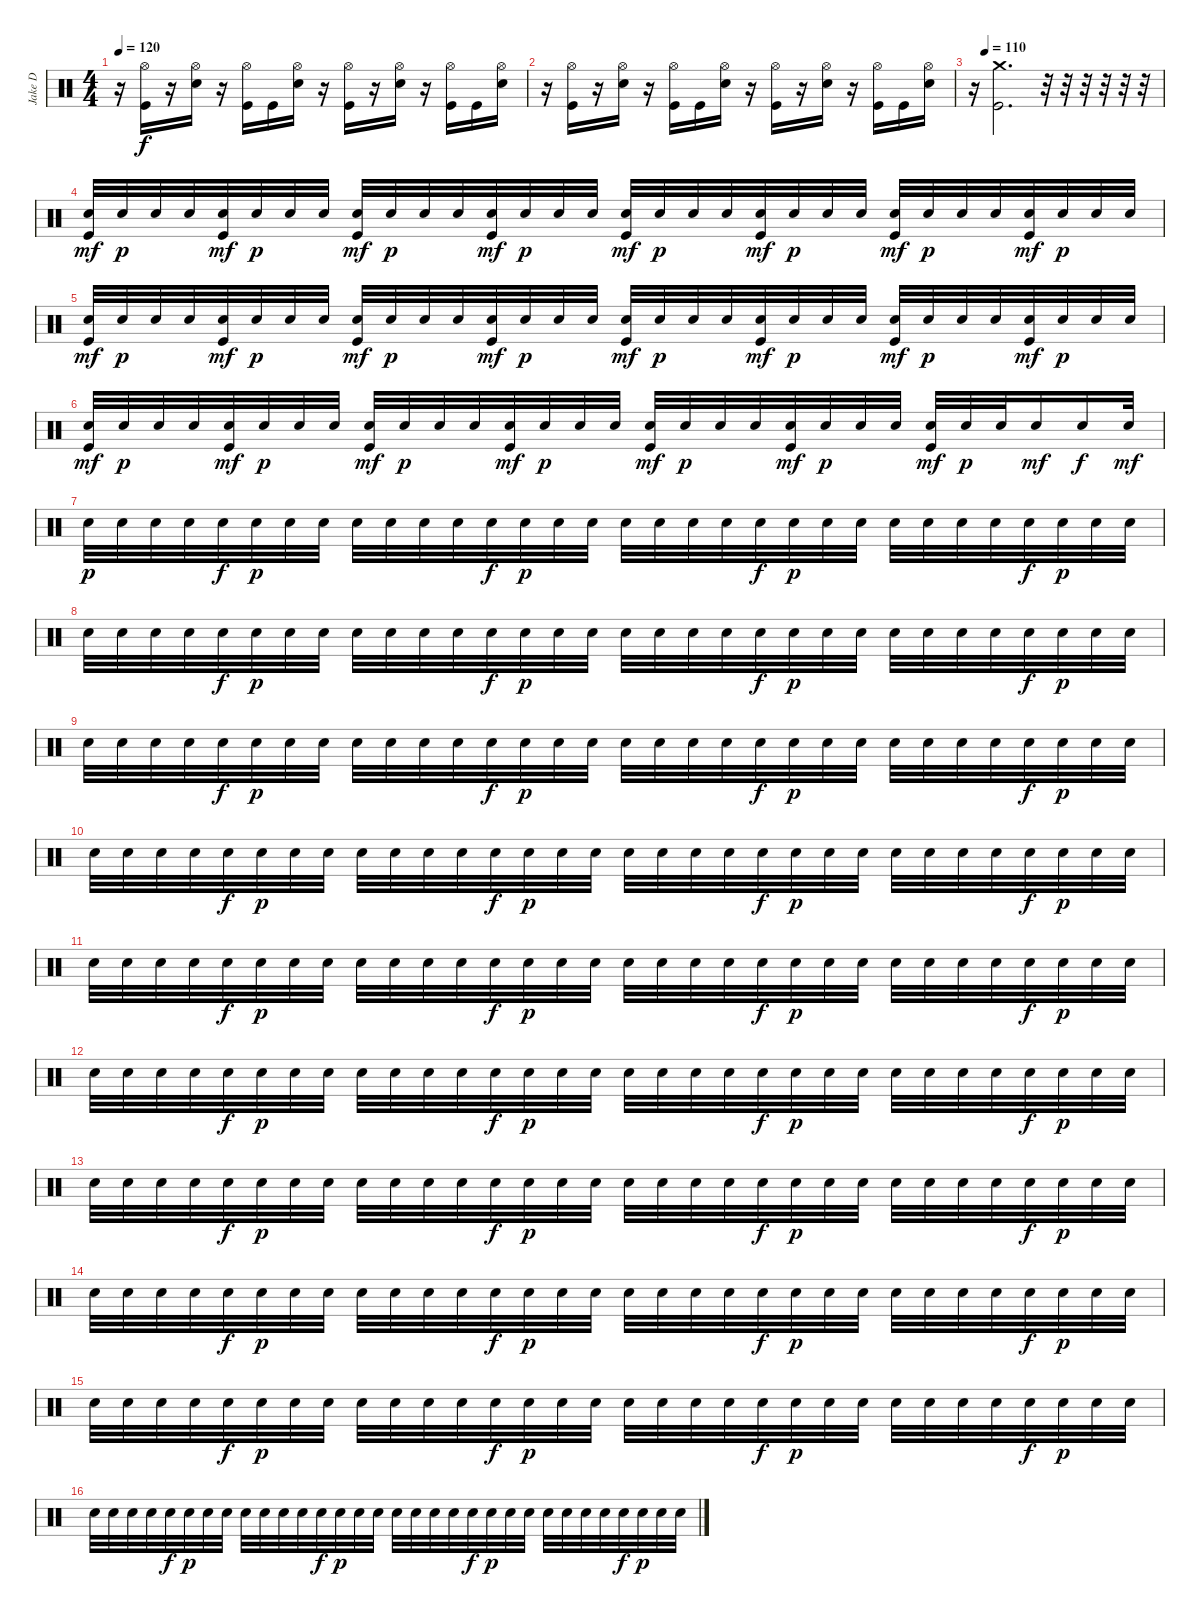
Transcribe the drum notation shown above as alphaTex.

\track ("Jake D" "Jake D") {instrument percussion}
\staff {score}
\articulation defaults
\ts (4 4)
\tempo 120
\clef neutral
\ks c
r.16{dy f} ("Hi-Hat (open)" "Kick (hit)").16 r.16 ("Hi-Hat (open)" "Electric Snare (hit)").16 r.16 ("Hi-Hat (open)" "Kick (hit)").16 "Kick (hit)".16 ("Hi-Hat (open)" "Electric Snare (hit)").16 r.16 ("Hi-Hat (open)" "Kick (hit)").16 r.16 ("Hi-Hat (open)" "Electric Snare (hit)").16 r.16 ("Hi-Hat (open)" "Kick (hit)").16 "Kick (hit)".16 ("Hi-Hat (open)" "Electric Snare (hit)").16 |
r.16 ("Hi-Hat (open)" "Kick (hit)").16 r.16 ("Hi-Hat (open)" "Electric Snare (hit)").16 r.16 ("Hi-Hat (open)" "Kick (hit)").16 "Kick (hit)".16 ("Hi-Hat (open)" "Electric Snare (hit)").16 r.16 ("Hi-Hat (open)" "Kick (hit)").16 r.16 ("Hi-Hat (open)" "Electric Snare (hit)").16 r.16 ("Hi-Hat (open)" "Kick (hit)").16 "Kick (hit)".16 ("Hi-Hat (open)" "Electric Snare (hit)").16 |
\tempo (110 0.0625)
r.16 ("Crash medium (hit)" "Kick (hit)").2{d} r.32 r.32 r.32 r.32 r.32 r.32 |
("Electric Snare (hit)" "Kick (hit)").32{dy mf} "Electric Snare (hit)".32{dy p} "Electric Snare (hit)".32 "Electric Snare (hit)".32 ("Electric Snare (hit)" "Kick (hit)").32{dy mf} "Electric Snare (hit)".32{dy p} "Electric Snare (hit)".32 "Electric Snare (hit)".32 ("Electric Snare (hit)" "Kick (hit)").32{dy mf} "Electric Snare (hit)".32{dy p} "Electric Snare (hit)".32 "Electric Snare (hit)".32 ("Electric Snare (hit)" "Kick (hit)").32{dy mf} "Electric Snare (hit)".32{dy p} "Electric Snare (hit)".32 "Electric Snare (hit)".32 ("Electric Snare (hit)" "Kick (hit)").32{dy mf} "Electric Snare (hit)".32{dy p} "Electric Snare (hit)".32 "Electric Snare (hit)".32 ("Electric Snare (hit)" "Kick (hit)").32{dy mf} "Electric Snare (hit)".32{dy p} "Electric Snare (hit)".32 "Electric Snare (hit)".32 ("Electric Snare (hit)" "Kick (hit)").32{dy mf} "Electric Snare (hit)".32{dy p} "Electric Snare (hit)".32 "Electric Snare (hit)".32 ("Electric Snare (hit)" "Kick (hit)").32{dy mf} "Electric Snare (hit)".32{dy p} "Electric Snare (hit)".32 "Electric Snare (hit)".32 |
("Electric Snare (hit)" "Kick (hit)").32{dy mf} "Electric Snare (hit)".32{dy p} "Electric Snare (hit)".32 "Electric Snare (hit)".32 ("Electric Snare (hit)" "Kick (hit)").32{dy mf} "Electric Snare (hit)".32{dy p} "Electric Snare (hit)".32 "Electric Snare (hit)".32 ("Electric Snare (hit)" "Kick (hit)").32{dy mf} "Electric Snare (hit)".32{dy p} "Electric Snare (hit)".32 "Electric Snare (hit)".32 ("Electric Snare (hit)" "Kick (hit)").32{dy mf} "Electric Snare (hit)".32{dy p} "Electric Snare (hit)".32 "Electric Snare (hit)".32 ("Electric Snare (hit)" "Kick (hit)").32{dy mf} "Electric Snare (hit)".32{dy p} "Electric Snare (hit)".32 "Electric Snare (hit)".32 ("Electric Snare (hit)" "Kick (hit)").32{dy mf} "Electric Snare (hit)".32{dy p} "Electric Snare (hit)".32 "Electric Snare (hit)".32 ("Electric Snare (hit)" "Kick (hit)").32{dy mf} "Electric Snare (hit)".32{dy p} "Electric Snare (hit)".32 "Electric Snare (hit)".32 ("Electric Snare (hit)" "Kick (hit)").32{dy mf} "Electric Snare (hit)".32{dy p} "Electric Snare (hit)".32 "Electric Snare (hit)".32 |
("Electric Snare (hit)" "Kick (hit)").32{dy mf} "Electric Snare (hit)".32{dy p} "Electric Snare (hit)".32 "Electric Snare (hit)".32 ("Electric Snare (hit)" "Kick (hit)").32{dy mf} "Electric Snare (hit)".32{dy p} "Electric Snare (hit)".32 "Electric Snare (hit)".32 ("Electric Snare (hit)" "Kick (hit)").32{dy mf} "Electric Snare (hit)".32{dy p} "Electric Snare (hit)".32 "Electric Snare (hit)".32 ("Electric Snare (hit)" "Kick (hit)").32{dy mf} "Electric Snare (hit)".32{dy p} "Electric Snare (hit)".32 "Electric Snare (hit)".32 ("Electric Snare (hit)" "Kick (hit)").32{dy mf} "Electric Snare (hit)".32{dy p} "Electric Snare (hit)".32 "Electric Snare (hit)".32 ("Electric Snare (hit)" "Kick (hit)").32{dy mf} "Electric Snare (hit)".32{dy p} "Electric Snare (hit)".32 "Electric Snare (hit)".32 ("Electric Snare (hit)" "Kick (hit)").32{dy mf} "Electric Snare (hit)".32{dy p} "Electric Snare (hit)".32 "Electric Snare (hit)".16{dy mf} "Electric Snare (hit)".16{dy f} "Electric Snare (hit)".32{dy mf} |
"Electric Snare (hit)".32{dy p} "Electric Snare (hit)".32 "Electric Snare (hit)".32 "Electric Snare (hit)".32 "Electric Snare (hit)".32{dy f} "Electric Snare (hit)".32{dy p} "Electric Snare (hit)".32 "Electric Snare (hit)".32 "Electric Snare (hit)".32 "Electric Snare (hit)".32 "Electric Snare (hit)".32 "Electric Snare (hit)".32 "Electric Snare (hit)".32{dy f} "Electric Snare (hit)".32{dy p} "Electric Snare (hit)".32 "Electric Snare (hit)".32 "Electric Snare (hit)".32 "Electric Snare (hit)".32 "Electric Snare (hit)".32 "Electric Snare (hit)".32 "Electric Snare (hit)".32{dy f} "Electric Snare (hit)".32{dy p} "Electric Snare (hit)".32 "Electric Snare (hit)".32 "Electric Snare (hit)".32 "Electric Snare (hit)".32 "Electric Snare (hit)".32 "Electric Snare (hit)".32 "Electric Snare (hit)".32{dy f} "Electric Snare (hit)".32{dy p} "Electric Snare (hit)".32 "Electric Snare (hit)".32 |
"Electric Snare (hit)".32 "Electric Snare (hit)".32 "Electric Snare (hit)".32 "Electric Snare (hit)".32 "Electric Snare (hit)".32{dy f} "Electric Snare (hit)".32{dy p} "Electric Snare (hit)".32 "Electric Snare (hit)".32 "Electric Snare (hit)".32 "Electric Snare (hit)".32 "Electric Snare (hit)".32 "Electric Snare (hit)".32 "Electric Snare (hit)".32{dy f} "Electric Snare (hit)".32{dy p} "Electric Snare (hit)".32 "Electric Snare (hit)".32 "Electric Snare (hit)".32 "Electric Snare (hit)".32 "Electric Snare (hit)".32 "Electric Snare (hit)".32 "Electric Snare (hit)".32{dy f} "Electric Snare (hit)".32{dy p} "Electric Snare (hit)".32 "Electric Snare (hit)".32 "Electric Snare (hit)".32 "Electric Snare (hit)".32 "Electric Snare (hit)".32 "Electric Snare (hit)".32 "Electric Snare (hit)".32{dy f} "Electric Snare (hit)".32{dy p} "Electric Snare (hit)".32 "Electric Snare (hit)".32 |
"Electric Snare (hit)".32 "Electric Snare (hit)".32 "Electric Snare (hit)".32 "Electric Snare (hit)".32 "Electric Snare (hit)".32{dy f} "Electric Snare (hit)".32{dy p} "Electric Snare (hit)".32 "Electric Snare (hit)".32 "Electric Snare (hit)".32 "Electric Snare (hit)".32 "Electric Snare (hit)".32 "Electric Snare (hit)".32 "Electric Snare (hit)".32{dy f} "Electric Snare (hit)".32{dy p} "Electric Snare (hit)".32 "Electric Snare (hit)".32 "Electric Snare (hit)".32 "Electric Snare (hit)".32 "Electric Snare (hit)".32 "Electric Snare (hit)".32 "Electric Snare (hit)".32{dy f} "Electric Snare (hit)".32{dy p} "Electric Snare (hit)".32 "Electric Snare (hit)".32 "Electric Snare (hit)".32 "Electric Snare (hit)".32 "Electric Snare (hit)".32 "Electric Snare (hit)".32 "Electric Snare (hit)".32{dy f} "Electric Snare (hit)".32{dy p} "Electric Snare (hit)".32 "Electric Snare (hit)".32 |
"Electric Snare (hit)".32 "Electric Snare (hit)".32 "Electric Snare (hit)".32 "Electric Snare (hit)".32 "Electric Snare (hit)".32{dy f} "Electric Snare (hit)".32{dy p} "Electric Snare (hit)".32 "Electric Snare (hit)".32 "Electric Snare (hit)".32 "Electric Snare (hit)".32 "Electric Snare (hit)".32 "Electric Snare (hit)".32 "Electric Snare (hit)".32{dy f} "Electric Snare (hit)".32{dy p} "Electric Snare (hit)".32 "Electric Snare (hit)".32 "Electric Snare (hit)".32 "Electric Snare (hit)".32 "Electric Snare (hit)".32 "Electric Snare (hit)".32 "Electric Snare (hit)".32{dy f} "Electric Snare (hit)".32{dy p} "Electric Snare (hit)".32 "Electric Snare (hit)".32 "Electric Snare (hit)".32 "Electric Snare (hit)".32 "Electric Snare (hit)".32 "Electric Snare (hit)".32 "Electric Snare (hit)".32{dy f} "Electric Snare (hit)".32{dy p} "Electric Snare (hit)".32 "Electric Snare (hit)".32 |
"Electric Snare (hit)".32 "Electric Snare (hit)".32 "Electric Snare (hit)".32 "Electric Snare (hit)".32 "Electric Snare (hit)".32{dy f} "Electric Snare (hit)".32{dy p} "Electric Snare (hit)".32 "Electric Snare (hit)".32 "Electric Snare (hit)".32 "Electric Snare (hit)".32 "Electric Snare (hit)".32 "Electric Snare (hit)".32 "Electric Snare (hit)".32{dy f} "Electric Snare (hit)".32{dy p} "Electric Snare (hit)".32 "Electric Snare (hit)".32 "Electric Snare (hit)".32 "Electric Snare (hit)".32 "Electric Snare (hit)".32 "Electric Snare (hit)".32 "Electric Snare (hit)".32{dy f} "Electric Snare (hit)".32{dy p} "Electric Snare (hit)".32 "Electric Snare (hit)".32 "Electric Snare (hit)".32 "Electric Snare (hit)".32 "Electric Snare (hit)".32 "Electric Snare (hit)".32 "Electric Snare (hit)".32{dy f} "Electric Snare (hit)".32{dy p} "Electric Snare (hit)".32 "Electric Snare (hit)".32 |
"Electric Snare (hit)".32 "Electric Snare (hit)".32 "Electric Snare (hit)".32 "Electric Snare (hit)".32 "Electric Snare (hit)".32{dy f} "Electric Snare (hit)".32{dy p} "Electric Snare (hit)".32 "Electric Snare (hit)".32 "Electric Snare (hit)".32 "Electric Snare (hit)".32 "Electric Snare (hit)".32 "Electric Snare (hit)".32 "Electric Snare (hit)".32{dy f} "Electric Snare (hit)".32{dy p} "Electric Snare (hit)".32 "Electric Snare (hit)".32 "Electric Snare (hit)".32 "Electric Snare (hit)".32 "Electric Snare (hit)".32 "Electric Snare (hit)".32 "Electric Snare (hit)".32{dy f} "Electric Snare (hit)".32{dy p} "Electric Snare (hit)".32 "Electric Snare (hit)".32 "Electric Snare (hit)".32 "Electric Snare (hit)".32 "Electric Snare (hit)".32 "Electric Snare (hit)".32 "Electric Snare (hit)".32{dy f} "Electric Snare (hit)".32{dy p} "Electric Snare (hit)".32 "Electric Snare (hit)".32 |
"Electric Snare (hit)".32 "Electric Snare (hit)".32 "Electric Snare (hit)".32 "Electric Snare (hit)".32 "Electric Snare (hit)".32{dy f} "Electric Snare (hit)".32{dy p} "Electric Snare (hit)".32 "Electric Snare (hit)".32 "Electric Snare (hit)".32 "Electric Snare (hit)".32 "Electric Snare (hit)".32 "Electric Snare (hit)".32 "Electric Snare (hit)".32{dy f} "Electric Snare (hit)".32{dy p} "Electric Snare (hit)".32 "Electric Snare (hit)".32 "Electric Snare (hit)".32 "Electric Snare (hit)".32 "Electric Snare (hit)".32 "Electric Snare (hit)".32 "Electric Snare (hit)".32{dy f} "Electric Snare (hit)".32{dy p} "Electric Snare (hit)".32 "Electric Snare (hit)".32 "Electric Snare (hit)".32 "Electric Snare (hit)".32 "Electric Snare (hit)".32 "Electric Snare (hit)".32 "Electric Snare (hit)".32{dy f} "Electric Snare (hit)".32{dy p} "Electric Snare (hit)".32 "Electric Snare (hit)".32 |
"Electric Snare (hit)".32 "Electric Snare (hit)".32 "Electric Snare (hit)".32 "Electric Snare (hit)".32 "Electric Snare (hit)".32{dy f} "Electric Snare (hit)".32{dy p} "Electric Snare (hit)".32 "Electric Snare (hit)".32 "Electric Snare (hit)".32 "Electric Snare (hit)".32 "Electric Snare (hit)".32 "Electric Snare (hit)".32 "Electric Snare (hit)".32{dy f} "Electric Snare (hit)".32{dy p} "Electric Snare (hit)".32 "Electric Snare (hit)".32 "Electric Snare (hit)".32 "Electric Snare (hit)".32 "Electric Snare (hit)".32 "Electric Snare (hit)".32 "Electric Snare (hit)".32{dy f} "Electric Snare (hit)".32{dy p} "Electric Snare (hit)".32 "Electric Snare (hit)".32 "Electric Snare (hit)".32 "Electric Snare (hit)".32 "Electric Snare (hit)".32 "Electric Snare (hit)".32 "Electric Snare (hit)".32{dy f} "Electric Snare (hit)".32{dy p} "Electric Snare (hit)".32 "Electric Snare (hit)".32 |
"Electric Snare (hit)".32 "Electric Snare (hit)".32 "Electric Snare (hit)".32 "Electric Snare (hit)".32 "Electric Snare (hit)".32{dy f} "Electric Snare (hit)".32{dy p} "Electric Snare (hit)".32 "Electric Snare (hit)".32 "Electric Snare (hit)".32 "Electric Snare (hit)".32 "Electric Snare (hit)".32 "Electric Snare (hit)".32 "Electric Snare (hit)".32{dy f} "Electric Snare (hit)".32{dy p} "Electric Snare (hit)".32 "Electric Snare (hit)".32 "Electric Snare (hit)".32 "Electric Snare (hit)".32 "Electric Snare (hit)".32 "Electric Snare (hit)".32 "Electric Snare (hit)".32{dy f} "Electric Snare (hit)".32{dy p} "Electric Snare (hit)".32 "Electric Snare (hit)".32 "Electric Snare (hit)".32 "Electric Snare (hit)".32 "Electric Snare (hit)".32 "Electric Snare (hit)".32 "Electric Snare (hit)".32{dy f} "Electric Snare (hit)".32{dy p} "Electric Snare (hit)".32 "Electric Snare (hit)".32 |
"Electric Snare (hit)".32 "Electric Snare (hit)".32 "Electric Snare (hit)".32 "Electric Snare (hit)".32 "Electric Snare (hit)".32{dy f} "Electric Snare (hit)".32{dy p} "Electric Snare (hit)".32 "Electric Snare (hit)".32 "Electric Snare (hit)".32 "Electric Snare (hit)".32 "Electric Snare (hit)".32 "Electric Snare (hit)".32 "Electric Snare (hit)".32{dy f} "Electric Snare (hit)".32{dy p} "Electric Snare (hit)".32 "Electric Snare (hit)".32 "Electric Snare (hit)".32 "Electric Snare (hit)".32 "Electric Snare (hit)".32 "Electric Snare (hit)".32 "Electric Snare (hit)".32{dy f} "Electric Snare (hit)".32{dy p} "Electric Snare (hit)".32 "Electric Snare (hit)".32 "Electric Snare (hit)".32 "Electric Snare (hit)".32 "Electric Snare (hit)".32 "Electric Snare (hit)".32 "Electric Snare (hit)".32{dy f} "Electric Snare (hit)".32{dy p} "Electric Snare (hit)".32 "Electric Snare (hit)".32
